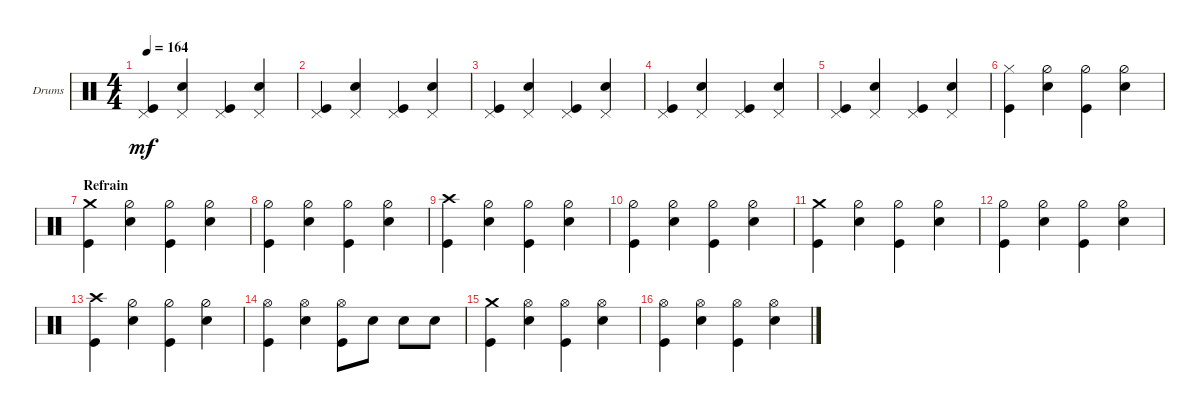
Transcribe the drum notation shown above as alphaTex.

\defaultSystemsLayout 4
\bracketExtendMode groupsimilarinstruments
\firstSystemTrackNameOrientation horizontal
\otherSystemsTrackNameOrientation horizontal
\track ("Drumkit" "Drums") {instrument percussion}
\staff {score}
\articulation defaults
\ts (4 4)
\tempo 164
\clef neutral
\ks c
("Kick (hit)" "Pedal Hi-Hat (hit)").4{dy mf} ("Snare (hit) 2" "Pedal Hi-Hat (hit)").4 ("Kick (hit)" "Pedal Hi-Hat (hit)").4 ("Snare (hit) 2" "Pedal Hi-Hat (hit)").4 |
("Kick (hit)" "Pedal Hi-Hat (hit)").4 ("Snare (hit) 2" "Pedal Hi-Hat (hit)").4 ("Kick (hit)" "Pedal Hi-Hat (hit)").4 ("Snare (hit) 2" "Pedal Hi-Hat (hit)").4 |
("Kick (hit)" "Pedal Hi-Hat (hit)").4 ("Snare (hit) 2" "Pedal Hi-Hat (hit)").4 ("Kick (hit)" "Pedal Hi-Hat (hit)").4 ("Snare (hit) 2" "Pedal Hi-Hat (hit)").4 |
("Kick (hit)" "Pedal Hi-Hat (hit)").4 ("Snare (hit) 2" "Pedal Hi-Hat (hit)").4 ("Kick (hit)" "Pedal Hi-Hat (hit)").4 ("Snare (hit) 2" "Pedal Hi-Hat (hit)").4 |
("Kick (hit)" "Pedal Hi-Hat (hit)").4 ("Snare (hit) 2" "Pedal Hi-Hat (hit)").4 ("Kick (hit)" "Pedal Hi-Hat (hit)").4 ("Snare (hit) 2" "Pedal Hi-Hat (hit)").4 |
("Kick (hit)" "Hi-Hat (closed)").4 ("Snare (hit) 2" "Hi-Hat (half)").4 ("Kick (hit)" "Hi-Hat (half)").4 ("Snare (hit) 2" "Hi-Hat (half)").4 |
\section ("" "Refrain")
("Kick (hit)" "Crash medium (hit)").4 ("Snare (hit) 2" "Hi-Hat (half)").4 ("Kick (hit)" "Hi-Hat (half)").4 ("Snare (hit) 2" "Hi-Hat (half)").4 |
("Kick (hit)" "Hi-Hat (half)").4 ("Snare (hit) 2" "Hi-Hat (half)").4 ("Kick (hit)" "Hi-Hat (half)").4 ("Snare (hit) 2" "Hi-Hat (half)").4 |
("Kick (hit)" "Crash high (hit)").4 ("Snare (hit) 2" "Hi-Hat (half)").4 ("Kick (hit)" "Hi-Hat (half)").4 ("Snare (hit) 2" "Hi-Hat (half)").4 |
("Kick (hit)" "Hi-Hat (half)").4 ("Snare (hit) 2" "Hi-Hat (half)").4 ("Kick (hit)" "Hi-Hat (half)").4 ("Snare (hit) 2" "Hi-Hat (half)").4 |
("Kick (hit)" "Crash medium (hit)").4 ("Snare (hit) 2" "Hi-Hat (half)").4 ("Kick (hit)" "Hi-Hat (half)").4 ("Snare (hit) 2" "Hi-Hat (half)").4 |
("Kick (hit)" "Hi-Hat (half)").4 ("Snare (hit) 2" "Hi-Hat (half)").4 ("Kick (hit)" "Hi-Hat (half)").4 ("Snare (hit) 2" "Hi-Hat (half)").4 |
("Kick (hit)" "Crash high (hit)").4 ("Snare (hit) 2" "Hi-Hat (half)").4 ("Kick (hit)" "Hi-Hat (half)").4 ("Snare (hit) 2" "Hi-Hat (half)").4 |
("Kick (hit)" "Hi-Hat (open)").4 ("Snare (hit) 2" "Hi-Hat (open)").4 ("Kick (hit)" "Hi-Hat (open)").8 "Snare (hit) 2".8 "Snare (hit) 2".8 "Snare (hit) 2".8 |
("Kick (hit)" "Crash medium (hit)").4 ("Snare (hit) 2" "Hi-Hat (open)").4 ("Kick (hit)" "Hi-Hat (open)").4 ("Snare (hit) 2" "Hi-Hat (open)").4 |
("Kick (hit)" "Hi-Hat (open)").4 ("Snare (hit) 2" "Hi-Hat (open)").4 ("Kick (hit)" "Hi-Hat (open)").4 ("Snare (hit) 2" "Hi-Hat (open)").4
